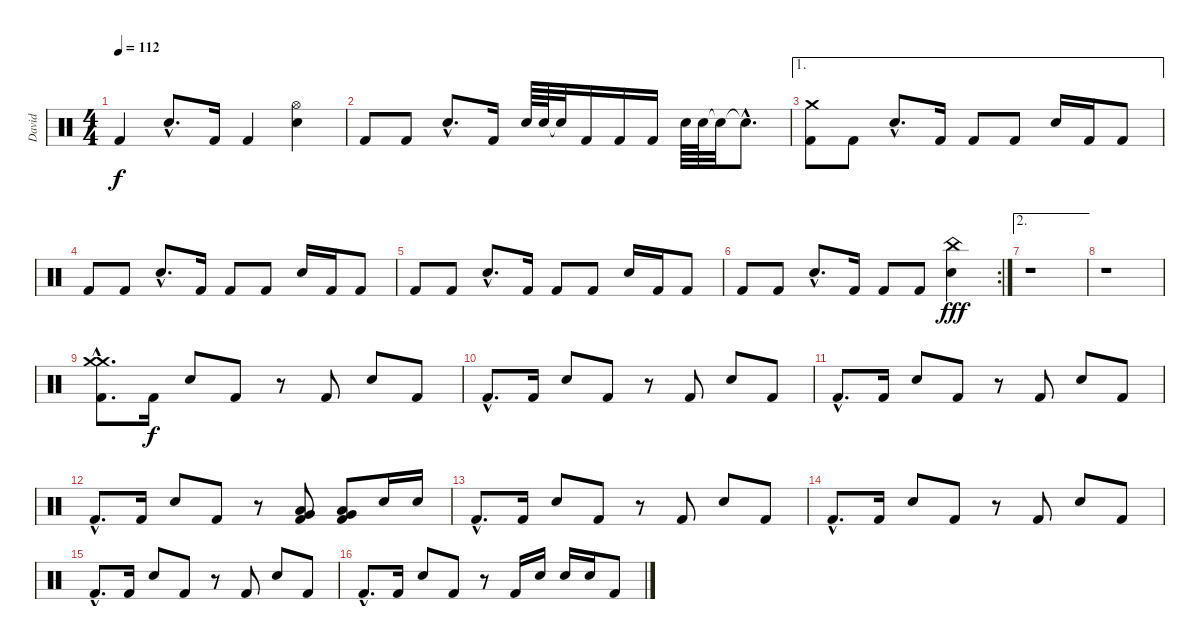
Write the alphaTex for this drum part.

\track ("David" "David") {instrument percussion}
\staff {score}
\articulation defaults
\ts (4 4)
\tempo 112
\clef neutral
\ks c "Kick (hit) 2".4{dy f} "Snare (hit) 2"{hac}.8{d} "Kick (hit) 2".16 "Kick (hit) 2".4
("Hi-Hat (open)" "Snare (hit) 2").4 |
"Kick (hit) 2".8 "Kick (hit) 2".8 "Snare (hit) 2"{hac}.8{d} "Kick (hit) 2".16 "Snare (hit) 2".64 "Snare (hit) 2".64 "Snare (hit)"{t}.32 "Kick (hit) 2".16 "Kick (hit) 2".16 "Kick (hit) 2".16 "Snare (hit) 2".64 "Snare (hit) 2".64 "Snare (hit)"{t}.32 "Snare (hit)"{hac t}.8{d} |
\ae 1
("Crash medium (hit)" "Kick (hit) 2").8 "Kick (hit) 2".8 "Snare (hit) 2"{hac}.8{d} "Kick (hit) 2".16 "Kick (hit) 2".8 "Kick (hit) 2".8 "Snare (hit) 2".16 "Kick (hit) 2".16 "Kick (hit) 2".8 |
"Kick (hit) 2".8 "Kick (hit) 2".8 "Snare (hit) 2"{hac}.8{d} "Kick (hit) 2".16 "Kick (hit) 2".8 "Kick (hit) 2".8 "Snare (hit) 2".16 "Kick (hit) 2".16 "Kick (hit) 2".8 |
"Kick (hit) 2".8 "Kick (hit) 2".8 "Snare (hit) 2"{hac}.8{d} "Kick (hit) 2".16 "Kick (hit) 2".8 "Kick (hit) 2".8 "Snare (hit) 2".16 "Kick (hit) 2".16 "Kick (hit) 2".8 |
\rc 2 "Kick (hit) 2".8 "Kick (hit) 2".8 "Snare (hit) 2"{hac}.8{d} "Kick (hit) 2".16 "Kick (hit) 2".8 "Kick (hit) 2".8
("China (hit)" "Snare (hit) 2").4{dy fff} |
\ae 2
r.1 |
r.1 |
("Crash medium (hit)"{hac} "Crash medium (hit)"{hac} "Kick (hit) 2"{hac}).8{d} "Kick (hit) 2".16{dy f} "Snare (hit) 2".8 "Kick (hit) 2".8 r.8 "Kick (hit) 2".8 "Snare (hit) 2".8 "Kick (hit) 2".8 |
"Kick (hit) 2"{hac}.8{d} "Kick (hit) 2".16 "Snare (hit) 2".8 "Kick (hit) 2".8 r.8 "Kick (hit) 2".8 "Snare (hit) 2".8 "Kick (hit) 2".8 |
"Kick (hit) 2"{hac}.8{d} "Kick (hit) 2".16 "Snare (hit) 2".8 "Kick (hit) 2".8 r.8 "Kick (hit) 2".8 "Snare (hit) 2".8 "Kick (hit) 2".8 |
"Kick (hit) 2"{hac}.8{d} "Kick (hit) 2".16 "Snare (hit) 2".8 "Kick (hit) 2".8 r.8 ("Very Low Tom (hit)" "Low Floor Tom (hit)" "Kick (hit) 2").8 ("Very Low Tom (hit)" "Low Floor Tom (hit)" "Kick (hit) 2").8 "Snare (hit) 2".16 "Snare (hit) 2".16 |
"Kick (hit) 2"{hac}.8{d} "Kick (hit) 2".16 "Snare (hit) 2".8 "Kick (hit) 2".8 r.8 "Kick (hit) 2".8 "Snare (hit) 2".8 "Kick (hit) 2".8 |
"Kick (hit) 2"{hac}.8{d} "Kick (hit) 2".16 "Snare (hit) 2".8 "Kick (hit) 2".8 r.8 "Kick (hit) 2".8 "Snare (hit) 2".8 "Kick (hit) 2".8 |
"Kick (hit) 2"{hac}.8{d} "Kick (hit) 2".16 "Snare (hit) 2".8 "Kick (hit) 2".8 r.8 "Kick (hit) 2".8 "Snare (hit) 2".8 "Kick (hit) 2".8 |
"Kick (hit) 2"{hac}.8{d} "Kick (hit) 2".16 "Snare (hit) 2".8 "Kick (hit) 2".8 r.8 "Kick (hit) 2".16 "Snare (hit) 2".16 "Snare (hit) 2".16 "Snare (hit) 2".16 "Kick (hit) 2".8
